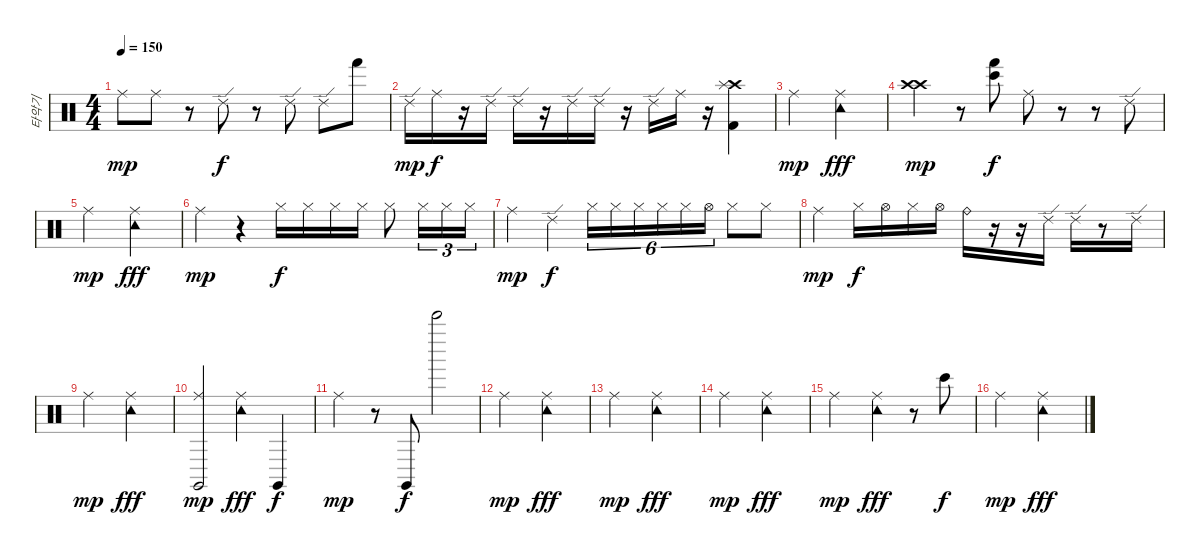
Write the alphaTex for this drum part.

\track ("타악기" "타악기") {instrument percussion}
\staff {score}
\articulation defaults
\ts (4 4)
\tempo 150
\clef neutral
\ks c "Ride (middle)".8{dy mp} "Ride (middle)".8
r.8 "Ride (edge) 2".8{dy f} r.8 "Ride (edge) 2".8 "Ride (edge) 2".8 "Hand (hit)".8 |
"Ride (edge) 2".16{dy mp} "Ride (middle)".16{dy f} r.16 "Ride (edge) 2".16 "Ride (edge) 2".16 r.16 "Ride (edge) 2".16 "Ride (edge) 2".16 r.16 "Ride (edge) 2".16 "Ride (middle)".16 r.16 ("Kick (hit) 2" "Crash high (hit)" "Splash (hit)").4 |
"Ride (middle)".2{dy mp} ("Ride (middle)" "Tambourine (hit)").2{dy fff} |
("Crash high (hit)" "Crash high (hit)").4{dy mp} r.8 ("Bongo High (hit)" "Hand (hit)").8{dy f} "Ride (middle)".8 r.8 r.8 "Ride (edge) 2".8 |
"Ride (middle)".2{dy mp} ("Ride (middle)" "Tambourine (hit)").2{dy fff} |
"Ride (middle)".4{dy mp} r.4 "Hi-Hat (closed)".16{dy f} "Hi-Hat (closed)".16 "Hi-Hat (closed)".16 "Hi-Hat (closed)".16 "Hi-Hat (closed)".8 "Hi-Hat (closed)".16{tu (3 2)} "Hi-Hat (closed)".16{tu (3 2)} "Hi-Hat (closed)".16{tu (3 2)} |
"Ride (middle)".4{dy mp} "Ride (edge) 2".4{dy f} "Hi-Hat (closed)".16{tu (6 4)} "Hi-Hat (closed)".16{tu (6 4)} "Hi-Hat (closed)".16{tu (6 4)} "Hi-Hat (closed)".16{tu (6 4)} "Hi-Hat (closed)".16{tu (6 4)} "Hi-Hat (open)".16{tu (6 4)} "Hi-Hat (closed)".8 "Hi-Hat (closed)".8 |
"Ride (middle)".4{dy mp} "Hi-Hat (closed)".16{dy f} "Hi-Hat (open)".16 "Hi-Hat (closed)".16 "Hi-Hat (open)".16 "Ride (bell)".16 r.16 r.16 "Ride (edge) 2".16 "Ride (edge) 2".16 r.8 "Ride (edge) 2".16 |
"Ride (middle)".2{dy mp} ("Ride (middle)" "Tambourine (hit)").2{dy fff} |
("Ride (middle)" "Claves (hit)").2{dy mp} ("Ride (middle)" "Tambourine (hit)").4{dy fff} "Claves (hit)".4{dy f} |
"Ride (middle)".4{dy mp} r.8 "Claves (hit)".8{dy f} "Bell Tree (hit)".2 |
"Ride (middle)".2{dy mp} ("Ride (middle)" "Tambourine (hit)").2{dy fff} |
"Ride (middle)".2{dy mp} ("Ride (middle)" "Tambourine (hit)").2{dy fff} |
"Ride (middle)".2{dy mp} ("Ride (middle)" "Tambourine (hit)").2{dy fff} |
"Ride (middle)".2{dy mp} ("Ride (middle)" "Tambourine (hit)").4{dy fff} r.8 "Bongo High (hit)".8{dy f} |
"Ride (middle)".2{dy mp} ("Ride (middle)" "Tambourine (hit)").2{dy fff}
